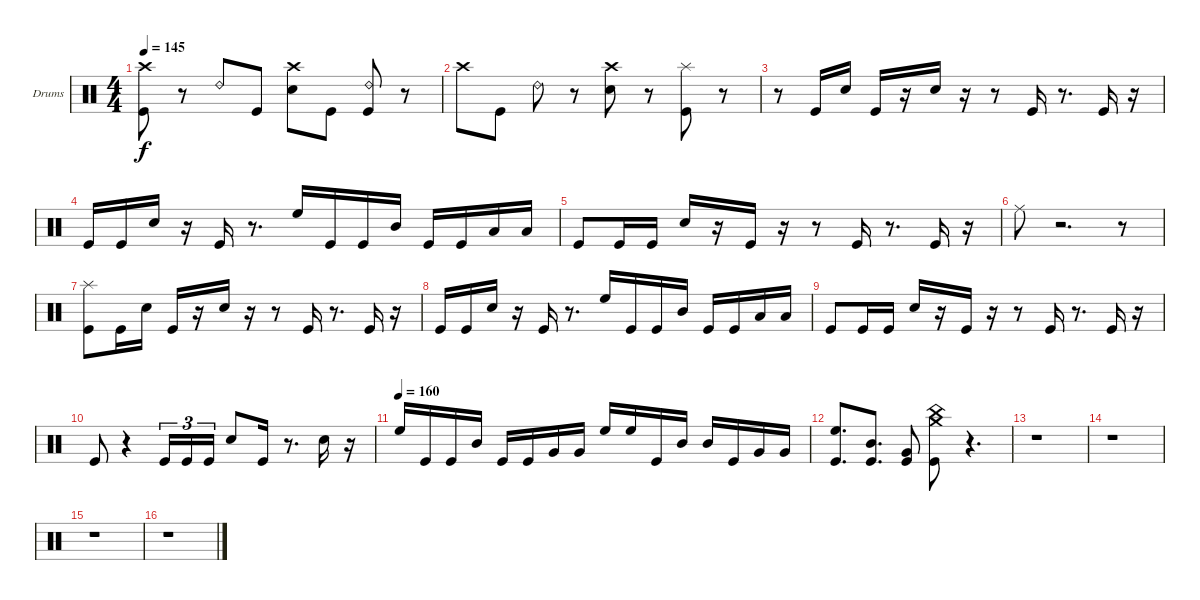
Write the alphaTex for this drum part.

\bracketExtendMode groupsimilarinstruments
\firstSystemTrackNameOrientation horizontal
\otherSystemsTrackNameOrientation horizontal
\track ("Drumkit" "Drums") {instrument percussion}
\staff {score}
\articulation defaults
\ts (4 4)
\tempo 145
\clef neutral
\ks c
("Crash high (hit)" "Kick (hit)").8{dy f} r.8 "Ride (bell) 2".8 "Kick (hit)".8 ("Crash high (hit)" "Snare (hit) 2").8 "Kick (hit)".8 ("Kick (hit)" "Ride (bell) 2").8 r.8 |
"Crash high (hit)".8 "Kick (hit)".8 "Ride (bell) 2".8 r.8 ("Crash high (hit)" "Snare (hit) 2").8 r.8 ("Splash (hit)" "Kick (hit)").8 r.8 |
r.8 "Kick (hit)".16 "Snare (hit) 2".16 "Kick (hit)".16 r.16 "Snare (hit) 2".16 r.16 r.8 "Kick (hit)".16 r.8{d} "Kick (hit)".16 r.16 |
"Kick (hit)".16 "Kick (hit)".16 "Snare (hit) 2".16 r.16 "Kick (hit)".16 r.8{d} "High Floor Tom (hit)".16 "Kick (hit)".16 "Kick (hit)".16 "Mid Tom (hit)".16 "Kick (hit)".16 "Kick (hit)".16 "Low Tom (hit)".16 "Low Tom (hit)".16 |
"Kick (hit)".8 "Kick (hit)".16 "Kick (hit)".16 "Snare (hit) 2".16 r.16 "Kick (hit)".16 r.16 r.8 "Kick (hit)".16 r.8{d} "Kick (hit)".16 r.16 |
"Ride (middle)".8 r.2{d} r.8 |
("Splash (hit)" "Kick (hit)").8 "Kick (hit)".16 "Snare (hit) 2".16 "Kick (hit)".16 r.16 "Snare (hit) 2".16 r.16 r.8 "Kick (hit)".16 r.8{d} "Kick (hit)".16 r.16 |
"Kick (hit)".16 "Kick (hit)".16 "Snare (hit) 2".16 r.16 "Kick (hit)".16 r.8{d} "High Floor Tom (hit)".16 "Kick (hit)".16 "Kick (hit)".16 "Mid Tom (hit)".16 "Kick (hit)".16 "Kick (hit)".16 "Low Tom (hit)".16 "Low Tom (hit)".16 |
"Kick (hit)".8 "Kick (hit)".16 "Kick (hit)".16 "Snare (hit) 2".16 r.16 "Kick (hit)".16 r.16 r.8 "Kick (hit)".16 r.8{d} "Kick (hit)".16 r.16 |
"Kick (hit)".8 r.4 "Kick (hit)".16{tu (3 2)} "Kick (hit)".16{tu (3 2)} "Kick (hit)".16{tu (3 2)} "Snare (hit) 2".8 "Kick (hit)".16 r.8{d} "Snare (hit) 2".16 r.16 |
\tempo (160)
"High Floor Tom (hit)".16 "Kick (hit)".16 "Kick (hit)".16 "Mid Tom (hit)".16 "Kick (hit)".16 "Kick (hit)".16 "Very Low Tom (hit)".16 "Very Low Tom (hit)".16 "High Floor Tom (hit)".16 "High Floor Tom (hit)".16 "Kick (hit)".16 "Mid Tom (hit)".16 "Mid Tom (hit)".16 "Kick (hit)".16 "Very Low Tom (hit)".16 "Very Low Tom (hit)".16 |
("Kick (hit)" "High Floor Tom (hit)").8{d} ("Kick (hit)" "Mid Tom (hit)").8{d} ("Kick (hit)" "Very Low Tom (hit)").8 ("Crash medium (hit)" "China (hit)" "Kick (hit)").8 r.4{d} |
r.1 |
r.1 |
r.1 |
r.1
